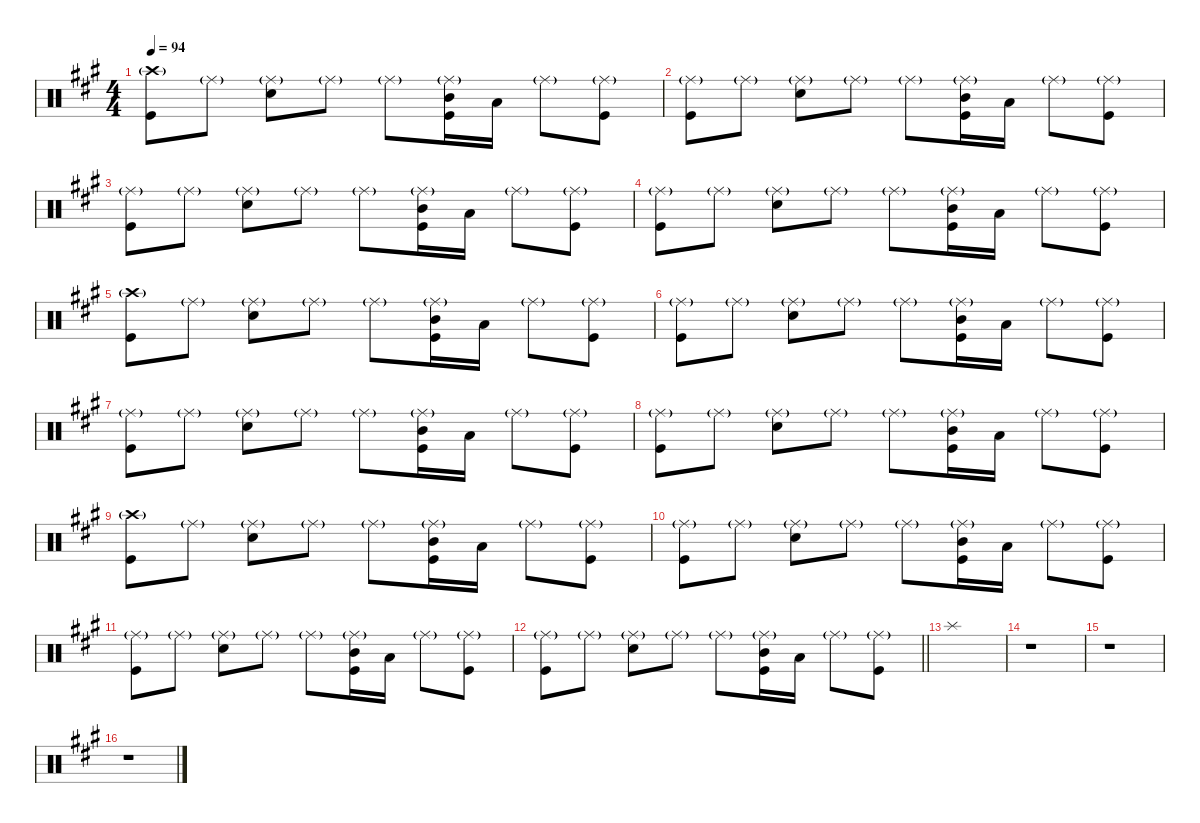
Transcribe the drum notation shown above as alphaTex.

\defaultSystemsLayout 4
\hideDynamics
\bracketExtendMode nobrackets
\singleTrackTrackNamePolicy hidden
\multiTrackTrackNamePolicy hidden
\firstSystemTrackNameMode fullname
\firstSystemTrackNameOrientation horizontal
\otherSystemsTrackNameOrientation horizontal
\track ("Percussion" "drm.") {defaultSystemsLayout 4 instrument percussion}
\staff {score}
\articulation defaults
\ts (4 4)
\tempo 94
\clef neutral
\ks a
("Crash high (hit)"{g acc forcenatural} "Kick (hit)"{acc forcenatural}).8{dy f beam Down} "Ride (middle)"{g acc forcenatural}.8{dy mf beam Down} ("Ride (middle)"{g acc forcenatural} "Snare (hit) 2"{acc forcenatural}).8{dy f beam Down} "Ride (middle)"{g acc forcenatural}.8{dy mf beam Down} "Ride (middle)"{g acc forcenatural}.8{beam Down} ("Ride (middle)"{g acc forcenatural} "Mid Tom (hit)"{acc forcenatural} "Kick (hit)"{acc forcenatural}).16{dy mp beam Down} "Low Tom (hit)"{acc forcenatural}.16{beam Down} "Ride (middle)"{g acc forcenatural}.8{dy mf beam Down} ("Ride (middle)"{g acc forcenatural} "Kick (hit)"{acc forcenatural}).8{dy f beam Down} |
("Ride (middle)"{g acc forcenatural} "Kick (hit)"{acc forcenatural}).8{beam Down} "Ride (middle)"{g acc forcenatural}.8{dy mf beam Down} ("Ride (middle)"{g acc forcenatural} "Snare (hit) 2"{acc forcenatural}).8{dy f beam Down} "Ride (middle)"{g acc forcenatural}.8{dy mf beam Down} "Ride (middle)"{g acc forcenatural}.8{beam Down} ("Ride (middle)"{g acc forcenatural} "Mid Tom (hit)"{acc forcenatural} "Kick (hit)"{acc forcenatural}).16{dy mp beam Down} "Low Tom (hit)"{acc forcenatural}.16{beam Down} "Ride (middle)"{g acc forcenatural}.8{dy mf beam Down} ("Ride (middle)"{g acc forcenatural} "Kick (hit)"{acc forcenatural}).8{dy f beam Down} |
("Ride (middle)"{g acc forcenatural} "Kick (hit)"{acc forcenatural}).8{beam Down} "Ride (middle)"{g acc forcenatural}.8{dy mf beam Down} ("Ride (middle)"{g acc forcenatural} "Snare (hit) 2"{acc forcenatural}).8{dy f beam Down} "Ride (middle)"{g acc forcenatural}.8{dy mf beam Down} "Ride (middle)"{g acc forcenatural}.8{beam Down} ("Ride (middle)"{g acc forcenatural} "Mid Tom (hit)"{acc forcenatural} "Kick (hit)"{acc forcenatural}).16{dy mp beam Down} "Low Tom (hit)"{acc forcenatural}.16{beam Down} "Ride (middle)"{g acc forcenatural}.8{dy mf beam Down} ("Ride (middle)"{g acc forcenatural} "Kick (hit)"{acc forcenatural}).8{dy f beam Down} |
("Ride (middle)"{g acc forcenatural} "Kick (hit)"{acc forcenatural}).8{beam Down} "Ride (middle)"{g acc forcenatural}.8{dy mf beam Down} ("Ride (middle)"{g acc forcenatural} "Snare (hit) 2"{acc forcenatural}).8{dy f beam Down} "Ride (middle)"{g acc forcenatural}.8{dy mf beam Down} "Ride (middle)"{g acc forcenatural}.8{beam Down} ("Ride (middle)"{g acc forcenatural} "Mid Tom (hit)"{acc forcenatural} "Kick (hit)"{acc forcenatural}).16{dy mp beam Down} "Low Tom (hit)"{acc forcenatural}.16{beam Down} "Ride (middle)"{g acc forcenatural}.8{dy mf beam Down} ("Ride (middle)"{g acc forcenatural} "Kick (hit)"{acc forcenatural}).8{dy f beam Down} |
("Crash high (hit)"{g acc forcenatural} "Kick (hit)"{acc forcenatural}).8{beam Down} "Ride (middle)"{g acc forcenatural}.8{dy mf beam Down} ("Ride (middle)"{g acc forcenatural} "Snare (hit) 2"{acc forcenatural}).8{dy f beam Down} "Ride (middle)"{g acc forcenatural}.8{dy mf beam Down} "Ride (middle)"{g acc forcenatural}.8{beam Down} ("Ride (middle)"{g acc forcenatural} "Mid Tom (hit)"{acc forcenatural} "Kick (hit)"{acc forcenatural}).16{dy mp beam Down} "Low Tom (hit)"{acc forcenatural}.16{beam Down} "Ride (middle)"{g acc forcenatural}.8{dy mf beam Down} ("Ride (middle)"{g acc forcenatural} "Kick (hit)"{acc forcenatural}).8{dy f beam Down} |
("Ride (middle)"{g acc forcenatural} "Kick (hit)"{acc forcenatural}).8{beam Down} "Ride (middle)"{g acc forcenatural}.8{dy mf beam Down} ("Ride (middle)"{g acc forcenatural} "Snare (hit) 2"{acc forcenatural}).8{dy f beam Down} "Ride (middle)"{g acc forcenatural}.8{dy mf beam Down} "Ride (middle)"{g acc forcenatural}.8{beam Down} ("Ride (middle)"{g acc forcenatural} "Mid Tom (hit)"{acc forcenatural} "Kick (hit)"{acc forcenatural}).16{dy mp beam Down} "Low Tom (hit)"{acc forcenatural}.16{beam Down} "Ride (middle)"{g acc forcenatural}.8{dy mf beam Down} ("Ride (middle)"{g acc forcenatural} "Kick (hit)"{acc forcenatural}).8{dy f beam Down} |
("Ride (middle)"{g acc forcenatural} "Kick (hit)"{acc forcenatural}).8{beam Down} "Ride (middle)"{g acc forcenatural}.8{dy mf beam Down} ("Ride (middle)"{g acc forcenatural} "Snare (hit) 2"{acc forcenatural}).8{dy f beam Down} "Ride (middle)"{g acc forcenatural}.8{dy mf beam Down} "Ride (middle)"{g acc forcenatural}.8{beam Down} ("Ride (middle)"{g acc forcenatural} "Mid Tom (hit)"{acc forcenatural} "Kick (hit)"{acc forcenatural}).16{dy mp beam Down} "Low Tom (hit)"{acc forcenatural}.16{beam Down} "Ride (middle)"{g acc forcenatural}.8{dy mf beam Down} ("Ride (middle)"{g acc forcenatural} "Kick (hit)"{acc forcenatural}).8{dy f beam Down} |
("Ride (middle)"{g acc forcenatural} "Kick (hit)"{acc forcenatural}).8{beam Down} "Ride (middle)"{g acc forcenatural}.8{dy mf beam Down} ("Ride (middle)"{g acc forcenatural} "Snare (hit) 2"{acc forcenatural}).8{dy f beam Down} "Ride (middle)"{g acc forcenatural}.8{dy mf beam Down} "Ride (middle)"{g acc forcenatural}.8{beam Down} ("Ride (middle)"{g acc forcenatural} "Mid Tom (hit)"{acc forcenatural} "Kick (hit)"{acc forcenatural}).16{dy mp beam Down} "Low Tom (hit)"{acc forcenatural}.16{beam Down} "Ride (middle)"{g acc forcenatural}.8{dy mf beam Down} ("Ride (middle)"{g acc forcenatural} "Kick (hit)"{acc forcenatural}).8{dy f beam Down} |
("Crash high (hit)"{g acc forcenatural} "Kick (hit)"{acc forcenatural}).8{beam Down} "Ride (middle)"{g acc forcenatural}.8{dy mf beam Down} ("Ride (middle)"{g acc forcenatural} "Snare (hit) 2"{acc forcenatural}).8{dy f beam Down} "Ride (middle)"{g acc forcenatural}.8{dy mf beam Down} "Ride (middle)"{g acc forcenatural}.8{beam Down} ("Ride (middle)"{g acc forcenatural} "Mid Tom (hit)"{acc forcenatural} "Kick (hit)"{acc forcenatural}).16{dy mp beam Down} "Low Tom (hit)"{acc forcenatural}.16{beam Down} "Ride (middle)"{g acc forcenatural}.8{dy mf beam Down} ("Ride (middle)"{g acc forcenatural} "Kick (hit)"{acc forcenatural}).8{dy f beam Down} |
("Ride (middle)"{g acc forcenatural} "Kick (hit)"{acc forcenatural}).8{beam Down} "Ride (middle)"{g acc forcenatural}.8{dy mf beam Down} ("Ride (middle)"{g acc forcenatural} "Snare (hit) 2"{acc forcenatural}).8{dy f beam Down} "Ride (middle)"{g acc forcenatural}.8{dy mf beam Down} "Ride (middle)"{g acc forcenatural}.8{beam Down} ("Ride (middle)"{g acc forcenatural} "Mid Tom (hit)"{acc forcenatural} "Kick (hit)"{acc forcenatural}).16{dy mp beam Down} "Low Tom (hit)"{acc forcenatural}.16{beam Down} "Ride (middle)"{g acc forcenatural}.8{dy mf beam Down} ("Ride (middle)"{g acc forcenatural} "Kick (hit)"{acc forcenatural}).8{dy f beam Down} |
("Ride (middle)"{g acc forcenatural} "Kick (hit)"{acc forcenatural}).8{beam Down} "Ride (middle)"{g acc forcenatural}.8{dy mf beam Down} ("Ride (middle)"{g acc forcenatural} "Snare (hit) 2"{acc forcenatural}).8{dy f beam Down} "Ride (middle)"{g acc forcenatural}.8{dy mf beam Down} "Ride (middle)"{g acc forcenatural}.8{beam Down} ("Ride (middle)"{g acc forcenatural} "Mid Tom (hit)"{acc forcenatural} "Kick (hit)"{acc forcenatural}).16{dy mp beam Down} "Low Tom (hit)"{acc forcenatural}.16{beam Down} "Ride (middle)"{g acc forcenatural}.8{dy mf beam Down} ("Ride (middle)"{g acc forcenatural} "Kick (hit)"{acc forcenatural}).8{dy f beam Down} |
\barLineRight lightlight
("Ride (middle)"{g acc forcenatural} "Kick (hit)"{acc forcenatural}).8{beam Down} "Ride (middle)"{g acc forcenatural}.8{dy mf beam Down} ("Ride (middle)"{g acc forcenatural} "Snare (hit) 2"{acc forcenatural}).8{dy f beam Down} "Ride (middle)"{g acc forcenatural}.8{dy mf beam Down} "Ride (middle)"{g acc forcenatural}.8{beam Down} ("Ride (middle)"{g acc forcenatural} "Mid Tom (hit)"{acc forcenatural} "Kick (hit)"{acc forcenatural}).16{dy mp beam Down} "Low Tom (hit)"{acc forcenatural}.16{beam Down} "Ride (middle)"{g acc forcenatural}.8{dy mf beam Down} ("Ride (middle)"{g acc forcenatural} "Kick (hit)"{acc forcenatural}).8{dy f beam Down} |
"Splash (hit)"{acc forcenatural}.1{beam Down} |
r.1{beam Down} |
r.1{beam Down} |
r.1{beam Down}
